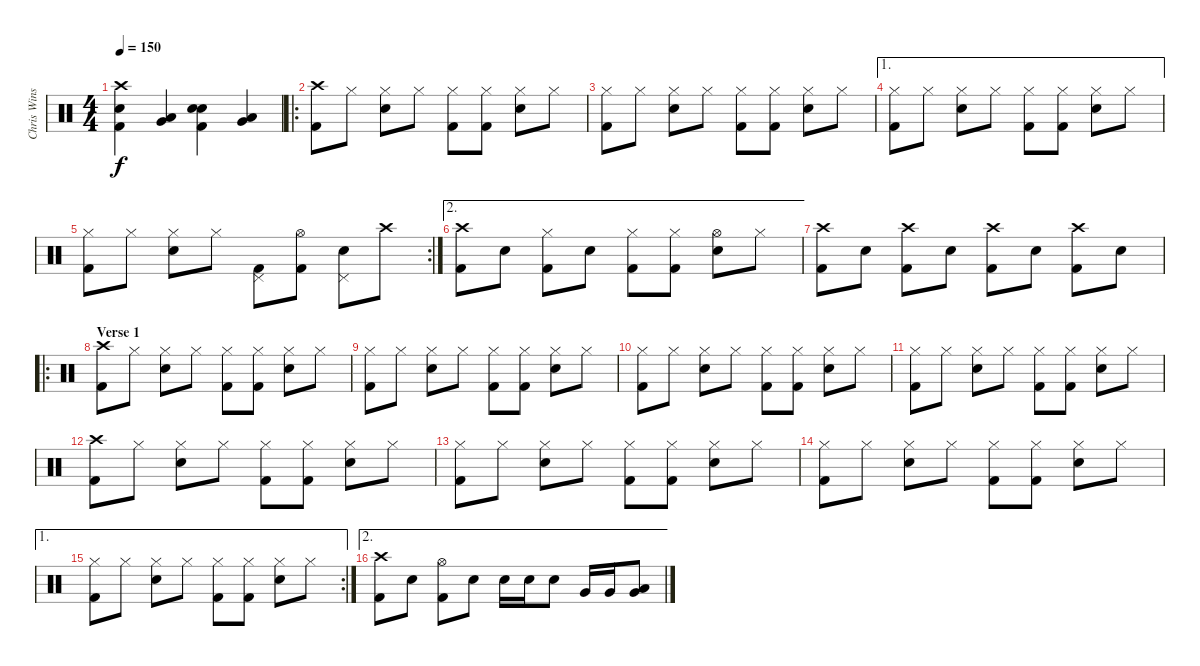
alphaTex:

\track ("Chris Winship (Drums)" "Chris Wins") {instrument percussion}
\staff {score}
\articulation defaults
\ts (4 4)
\tempo 150
\clef neutral
\ks c
("Crash high (hit)" "Snare (hit) 2" "Kick (hit) 2").4{dy f} ("Low Floor Tom (hit)" "Very Low Tom (hit)").4{bd 60} ("Electric Snare (hit)" "Snare (hit) 2" "Kick (hit) 2").4 ("Low Floor Tom (hit)" "Very Low Tom (hit)").4{bd 60} |
\ro
("Crash high (hit)" "Kick (hit) 2").8 "Hi-Hat (closed)".8 ("Hi-Hat (closed)" "Electric Snare (hit)").8 "Hi-Hat (closed)".8 ("Hi-Hat (closed)" "Kick (hit) 2").8 ("Hi-Hat (closed)" "Kick (hit) 2").8 ("Hi-Hat (closed)" "Electric Snare (hit)").8 "Hi-Hat (closed)".8 |
("Hi-Hat (closed)" "Kick (hit) 2").8 "Hi-Hat (closed)".8 ("Hi-Hat (closed)" "Electric Snare (hit)").8 "Hi-Hat (closed)".8 ("Hi-Hat (closed)" "Kick (hit) 2").8 ("Hi-Hat (closed)" "Kick (hit) 2").8 ("Hi-Hat (closed)" "Electric Snare (hit)").8 "Hi-Hat (closed)".8 |
\ae 1
("Hi-Hat (closed)" "Kick (hit) 2").8 "Hi-Hat (closed)".8 ("Hi-Hat (closed)" "Electric Snare (hit)").8 "Hi-Hat (closed)".8 ("Hi-Hat (closed)" "Kick (hit) 2").8 ("Hi-Hat (closed)" "Kick (hit) 2").8 ("Hi-Hat (closed)" "Electric Snare (hit)").8 "Hi-Hat (closed)".8 |
\rc 2
("Hi-Hat (closed)" "Kick (hit) 2").8 "Hi-Hat (closed)".8 ("Hi-Hat (closed)" "Electric Snare (hit)").8 "Hi-Hat (closed)".8 ("Pedal Hi-Hat (hit)" "Kick (hit) 2").8 ("Hi-Hat (open)" "Kick (hit) 2").8 ("Pedal Hi-Hat (hit)" "Electric Snare (hit)").8 "Crash high (hit)".8 |
\ae 2
("Crash high (hit)" "Kick (hit) 2").8 "Electric Snare (hit)".8 ("Hi-Hat (closed)" "Kick (hit) 2").8 "Electric Snare (hit)".8 ("Hi-Hat (closed)" "Kick (hit) 2").8 ("Hi-Hat (closed)" "Kick (hit) 2").8 ("Hi-Hat (open)" "Electric Snare (hit)").8 "Hi-Hat (closed)".8 |
("Crash high (hit)" "Kick (hit) 2").8 "Electric Snare (hit)".8 ("Crash high (hit)" "Kick (hit) 2").8 "Electric Snare (hit)".8 ("Crash high (hit)" "Kick (hit) 2").8 "Electric Snare (hit)".8 ("Crash high (hit)" "Kick (hit) 2").8 "Electric Snare (hit)".8 |
\ro
\section ("" "Verse 1")
("Crash high (hit)" "Kick (hit) 2").8 "Hi-Hat (closed)".8 ("Hi-Hat (closed)" "Electric Snare (hit)").8 "Hi-Hat (closed)".8 ("Hi-Hat (closed)" "Kick (hit) 2").8 ("Hi-Hat (closed)" "Kick (hit) 2").8 ("Hi-Hat (closed)" "Electric Snare (hit)").8 "Hi-Hat (closed)".8 |
("Hi-Hat (closed)" "Kick (hit) 2").8 "Hi-Hat (closed)".8 ("Hi-Hat (closed)" "Electric Snare (hit)").8 "Hi-Hat (closed)".8 ("Hi-Hat (closed)" "Kick (hit) 2").8 ("Hi-Hat (closed)" "Kick (hit) 2").8 ("Hi-Hat (closed)" "Electric Snare (hit)").8 "Hi-Hat (closed)".8 |
("Hi-Hat (closed)" "Kick (hit) 2").8 "Hi-Hat (closed)".8 ("Hi-Hat (closed)" "Electric Snare (hit)").8 "Hi-Hat (closed)".8 ("Hi-Hat (closed)" "Kick (hit) 2").8 ("Hi-Hat (closed)" "Kick (hit) 2").8 ("Hi-Hat (closed)" "Electric Snare (hit)").8 "Hi-Hat (closed)".8 |
("Hi-Hat (closed)" "Kick (hit) 2").8 "Hi-Hat (closed)".8 ("Hi-Hat (closed)" "Electric Snare (hit)").8 "Hi-Hat (closed)".8 ("Hi-Hat (closed)" "Kick (hit) 2").8 ("Hi-Hat (closed)" "Kick (hit) 2").8 ("Hi-Hat (closed)" "Electric Snare (hit)").8 "Hi-Hat (closed)".8 |
("Crash high (hit)" "Kick (hit) 2").8 "Hi-Hat (closed)".8 ("Hi-Hat (closed)" "Electric Snare (hit)").8 "Hi-Hat (closed)".8 ("Hi-Hat (closed)" "Kick (hit) 2").8 ("Hi-Hat (closed)" "Kick (hit) 2").8 ("Hi-Hat (closed)" "Electric Snare (hit)").8 "Hi-Hat (closed)".8 |
("Hi-Hat (closed)" "Kick (hit) 2").8 "Hi-Hat (closed)".8 ("Hi-Hat (closed)" "Electric Snare (hit)").8 "Hi-Hat (closed)".8 ("Hi-Hat (closed)" "Kick (hit) 2").8 ("Hi-Hat (closed)" "Kick (hit) 2").8 ("Hi-Hat (closed)" "Electric Snare (hit)").8 "Hi-Hat (closed)".8 |
("Hi-Hat (closed)" "Kick (hit) 2").8 "Hi-Hat (closed)".8 ("Hi-Hat (closed)" "Electric Snare (hit)").8 "Hi-Hat (closed)".8 ("Hi-Hat (closed)" "Kick (hit) 2").8 ("Hi-Hat (closed)" "Kick (hit) 2").8 ("Hi-Hat (closed)" "Electric Snare (hit)").8 "Hi-Hat (closed)".8 |
\ae 1
\rc 2
("Hi-Hat (closed)" "Kick (hit) 2").8 "Hi-Hat (closed)".8 ("Hi-Hat (closed)" "Electric Snare (hit)").8 "Hi-Hat (closed)".8 ("Hi-Hat (closed)" "Kick (hit) 2").8 ("Hi-Hat (closed)" "Kick (hit) 2").8 ("Hi-Hat (closed)" "Electric Snare (hit)").8 "Hi-Hat (closed)".8 |
\ae 2
("Crash high (hit)" "Kick (hit) 2").8 "Electric Snare (hit)".8 ("Hi-Hat (open)" "Kick (hit) 2").8 "Electric Snare (hit)".8 "Electric Snare (hit)".16 "Electric Snare (hit)".16 "Electric Snare (hit)".8 "Very Low Tom (hit)".16 "Very Low Tom (hit)".16 ("Low Floor Tom (hit)" "Very Low Tom (hit)").8
